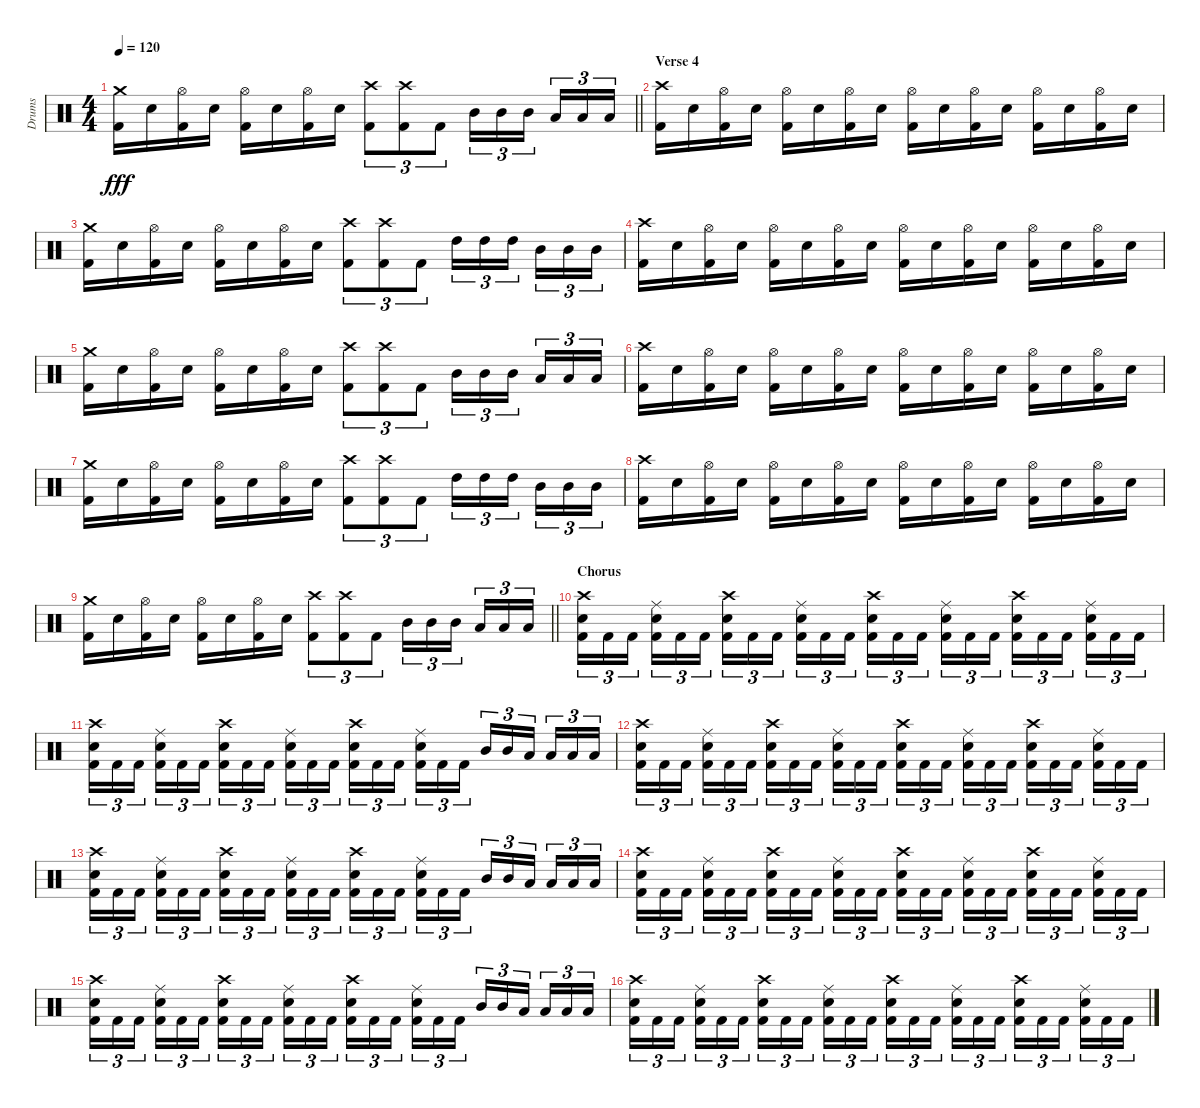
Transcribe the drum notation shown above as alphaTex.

\track ("Drums" "Drums") {instrument percussion}
\staff {score}
\articulation defaults
\ts (4 4)
\tempo 120
\clef neutral
\barLineRight lightlight
\ks c
("Crash medium (hit)" "Kick (hit) 2").16{dy fff} "Snare (hit) 2".16 ("Hi-Hat (open)" "Kick (hit) 2").16 "Snare (hit) 2".16 ("Hi-Hat (open)" "Kick (hit) 2").16 "Snare (hit) 2".16 ("Hi-Hat (open)" "Kick (hit) 2").16 "Snare (hit) 2".16 ("Crash high (hit)" "Kick (hit) 2").8{tu (3 2)} ("Crash high (hit)" "Kick (hit) 2").8{tu (3 2)} "Kick (hit) 2".8{tu (3 2)} "Mid Tom (hit)".16{tu (3 2)} "Mid Tom (hit)".16{tu (3 2)} "Mid Tom (hit)".16{tu (3 2) beam splitsecondary} "Low Tom (hit)".16{tu (3 2)} "Low Tom (hit)".16{tu (3 2)} "Low Tom (hit)".16{tu (3 2)} |
\section ("" "Verse 4")
("Crash high (hit)" "Kick (hit) 2").16 "Snare (hit) 2".16 ("Hi-Hat (open)" "Kick (hit) 2").16 "Snare (hit) 2".16 ("Hi-Hat (open)" "Kick (hit) 2").16 "Snare (hit) 2".16 ("Hi-Hat (open)" "Kick (hit) 2").16 "Snare (hit) 2".16 ("Hi-Hat (open)" "Kick (hit) 2").16 "Snare (hit) 2".16 ("Hi-Hat (open)" "Kick (hit) 2").16 "Snare (hit) 2".16 ("Hi-Hat (open)" "Kick (hit) 2").16 "Snare (hit) 2".16 ("Hi-Hat (open)" "Kick (hit) 2").16 "Snare (hit) 2".16 |
("Crash medium (hit)" "Kick (hit) 2").16 "Snare (hit) 2".16 ("Hi-Hat (open)" "Kick (hit) 2").16 "Snare (hit) 2".16 ("Hi-Hat (open)" "Kick (hit) 2").16 "Snare (hit) 2".16 ("Hi-Hat (open)" "Kick (hit) 2").16 "Snare (hit) 2".16 ("Crash high (hit)" "Kick (hit) 2").8{tu (3 2)} ("Crash high (hit)" "Kick (hit) 2").8{tu (3 2)} "Kick (hit) 2".8{tu (3 2)} "High Tom (hit)".16{tu (3 2)} "High Tom (hit)".16{tu (3 2)} "High Tom (hit)".16{tu (3 2) beam splitsecondary} "Mid Tom (hit)".16{tu (3 2)} "Mid Tom (hit)".16{tu (3 2)} "Mid Tom (hit)".16{tu (3 2)} |
("Crash high (hit)" "Kick (hit) 2").16 "Snare (hit) 2".16 ("Hi-Hat (open)" "Kick (hit) 2").16 "Snare (hit) 2".16 ("Hi-Hat (open)" "Kick (hit) 2").16 "Snare (hit) 2".16 ("Hi-Hat (open)" "Kick (hit) 2").16 "Snare (hit) 2".16 ("Hi-Hat (open)" "Kick (hit) 2").16 "Snare (hit) 2".16 ("Hi-Hat (open)" "Kick (hit) 2").16 "Snare (hit) 2".16 ("Hi-Hat (open)" "Kick (hit) 2").16 "Snare (hit) 2".16 ("Hi-Hat (open)" "Kick (hit) 2").16 "Snare (hit) 2".16 |
("Crash medium (hit)" "Kick (hit) 2").16 "Snare (hit) 2".16 ("Hi-Hat (open)" "Kick (hit) 2").16 "Snare (hit) 2".16 ("Hi-Hat (open)" "Kick (hit) 2").16 "Snare (hit) 2".16 ("Hi-Hat (open)" "Kick (hit) 2").16 "Snare (hit) 2".16 ("Crash high (hit)" "Kick (hit) 2").8{tu (3 2)} ("Crash high (hit)" "Kick (hit) 2").8{tu (3 2)} "Kick (hit) 2".8{tu (3 2)} "Mid Tom (hit)".16{tu (3 2)} "Mid Tom (hit)".16{tu (3 2)} "Mid Tom (hit)".16{tu (3 2) beam splitsecondary} "Low Tom (hit)".16{tu (3 2)} "Low Tom (hit)".16{tu (3 2)} "Low Tom (hit)".16{tu (3 2)} |
("Crash high (hit)" "Kick (hit) 2").16 "Snare (hit) 2".16 ("Hi-Hat (open)" "Kick (hit) 2").16 "Snare (hit) 2".16 ("Hi-Hat (open)" "Kick (hit) 2").16 "Snare (hit) 2".16 ("Hi-Hat (open)" "Kick (hit) 2").16 "Snare (hit) 2".16 ("Hi-Hat (open)" "Kick (hit) 2").16 "Snare (hit) 2".16 ("Hi-Hat (open)" "Kick (hit) 2").16 "Snare (hit) 2".16 ("Hi-Hat (open)" "Kick (hit) 2").16 "Snare (hit) 2".16 ("Hi-Hat (open)" "Kick (hit) 2").16 "Snare (hit) 2".16 |
("Crash medium (hit)" "Kick (hit) 2").16 "Snare (hit) 2".16 ("Hi-Hat (open)" "Kick (hit) 2").16 "Snare (hit) 2".16 ("Hi-Hat (open)" "Kick (hit) 2").16 "Snare (hit) 2".16 ("Hi-Hat (open)" "Kick (hit) 2").16 "Snare (hit) 2".16 ("Crash high (hit)" "Kick (hit) 2").8{tu (3 2)} ("Crash high (hit)" "Kick (hit) 2").8{tu (3 2)} "Kick (hit) 2".8{tu (3 2)} "High Tom (hit)".16{tu (3 2)} "High Tom (hit)".16{tu (3 2)} "High Tom (hit)".16{tu (3 2) beam splitsecondary} "Mid Tom (hit)".16{tu (3 2)} "Mid Tom (hit)".16{tu (3 2)} "Mid Tom (hit)".16{tu (3 2)} |
("Crash high (hit)" "Kick (hit) 2").16 "Snare (hit) 2".16 ("Hi-Hat (open)" "Kick (hit) 2").16 "Snare (hit) 2".16 ("Hi-Hat (open)" "Kick (hit) 2").16 "Snare (hit) 2".16 ("Hi-Hat (open)" "Kick (hit) 2").16 "Snare (hit) 2".16 ("Hi-Hat (open)" "Kick (hit) 2").16 "Snare (hit) 2".16 ("Hi-Hat (open)" "Kick (hit) 2").16 "Snare (hit) 2".16 ("Hi-Hat (open)" "Kick (hit) 2").16 "Snare (hit) 2".16 ("Hi-Hat (open)" "Kick (hit) 2").16 "Snare (hit) 2".16 |
\barLineRight lightlight
("Crash medium (hit)" "Kick (hit) 2").16 "Snare (hit) 2".16 ("Hi-Hat (open)" "Kick (hit) 2").16 "Snare (hit) 2".16 ("Hi-Hat (open)" "Kick (hit) 2").16 "Snare (hit) 2".16 ("Hi-Hat (open)" "Kick (hit) 2").16 "Snare (hit) 2".16 ("Crash high (hit)" "Kick (hit) 2").8{tu (3 2)} ("Crash high (hit)" "Kick (hit) 2").8{tu (3 2)} "Kick (hit) 2".8{tu (3 2)} "Mid Tom (hit)".16{tu (3 2)} "Mid Tom (hit)".16{tu (3 2)} "Mid Tom (hit)".16{tu (3 2) beam splitsecondary} "Low Tom (hit)".16{tu (3 2)} "Low Tom (hit)".16{tu (3 2)} "Low Tom (hit)".16{tu (3 2)} |
\section ("" "Chorus")
("Crash high (hit)" "Snare (hit) 2" "Kick (hit) 2").16{tu (3 2)} "Kick (hit) 2".16{tu (3 2)} "Kick (hit) 2".16{tu (3 2) beam splitsecondary} ("Ride (middle)" "Snare (hit) 2" "Kick (hit) 2").16{tu (3 2)} "Kick (hit) 2".16{tu (3 2)} "Kick (hit) 2".16{tu (3 2)} ("Crash high (hit)" "Snare (hit) 2" "Kick (hit) 2").16{tu (3 2)} "Kick (hit) 2".16{tu (3 2)} "Kick (hit) 2".16{tu (3 2) beam splitsecondary} ("Ride (middle)" "Snare (hit) 2" "Kick (hit) 2").16{tu (3 2)} "Kick (hit) 2".16{tu (3 2)} "Kick (hit) 2".16{tu (3 2)} ("Crash high (hit)" "Snare (hit) 2" "Kick (hit) 2").16{tu (3 2)} "Kick (hit) 2".16{tu (3 2)} "Kick (hit) 2".16{tu (3 2) beam splitsecondary} ("Ride (middle)" "Snare (hit) 2" "Kick (hit) 2").16{tu (3 2)} "Kick (hit) 2".16{tu (3 2)} "Kick (hit) 2".16{tu (3 2)} ("Crash high (hit)" "Snare (hit) 2" "Kick (hit) 2").16{tu (3 2)} "Kick (hit) 2".16{tu (3 2)} "Kick (hit) 2".16{tu (3 2) beam splitsecondary} ("Ride (middle)" "Snare (hit) 2" "Kick (hit) 2").16{tu (3 2)} "Kick (hit) 2".16{tu (3 2)} "Kick (hit) 2".16{tu (3 2)} |
("Crash high (hit)" "Snare (hit) 2" "Kick (hit) 2").16{tu (3 2)} "Kick (hit) 2".16{tu (3 2)} "Kick (hit) 2".16{tu (3 2) beam splitsecondary} ("Ride (middle)" "Snare (hit) 2" "Kick (hit) 2").16{tu (3 2)} "Kick (hit) 2".16{tu (3 2)} "Kick (hit) 2".16{tu (3 2)} ("Crash high (hit)" "Snare (hit) 2" "Kick (hit) 2").16{tu (3 2)} "Kick (hit) 2".16{tu (3 2)} "Kick (hit) 2".16{tu (3 2) beam splitsecondary} ("Ride (middle)" "Snare (hit) 2" "Kick (hit) 2").16{tu (3 2)} "Kick (hit) 2".16{tu (3 2)} "Kick (hit) 2".16{tu (3 2)} ("Crash high (hit)" "Snare (hit) 2" "Kick (hit) 2").16{tu (3 2)} "Kick (hit) 2".16{tu (3 2)} "Kick (hit) 2".16{tu (3 2) beam splitsecondary} ("Ride (middle)" "Snare (hit) 2" "Kick (hit) 2").16{tu (3 2)} "Kick (hit) 2".16{tu (3 2)} "Kick (hit) 2".16{tu (3 2)} "Mid Tom (hit)".16{tu (3 2)} "Mid Tom (hit)".16{tu (3 2)} "Low Tom (hit)".16{tu (3 2) beam splitsecondary} "Low Tom (hit)".16{tu (3 2)} "Low Tom (hit)".16{tu (3 2)} "Low Tom (hit)".16{tu (3 2)} |
("Crash high (hit)" "Snare (hit) 2" "Kick (hit) 2").16{tu (3 2)} "Kick (hit) 2".16{tu (3 2)} "Kick (hit) 2".16{tu (3 2) beam splitsecondary} ("Ride (middle)" "Snare (hit) 2" "Kick (hit) 2").16{tu (3 2)} "Kick (hit) 2".16{tu (3 2)} "Kick (hit) 2".16{tu (3 2)} ("Crash high (hit)" "Snare (hit) 2" "Kick (hit) 2").16{tu (3 2)} "Kick (hit) 2".16{tu (3 2)} "Kick (hit) 2".16{tu (3 2) beam splitsecondary} ("Ride (middle)" "Snare (hit) 2" "Kick (hit) 2").16{tu (3 2)} "Kick (hit) 2".16{tu (3 2)} "Kick (hit) 2".16{tu (3 2)} ("Crash high (hit)" "Snare (hit) 2" "Kick (hit) 2").16{tu (3 2)} "Kick (hit) 2".16{tu (3 2)} "Kick (hit) 2".16{tu (3 2) beam splitsecondary} ("Ride (middle)" "Snare (hit) 2" "Kick (hit) 2").16{tu (3 2)} "Kick (hit) 2".16{tu (3 2)} "Kick (hit) 2".16{tu (3 2)} ("Crash high (hit)" "Snare (hit) 2" "Kick (hit) 2").16{tu (3 2)} "Kick (hit) 2".16{tu (3 2)} "Kick (hit) 2".16{tu (3 2) beam splitsecondary} ("Ride (middle)" "Snare (hit) 2" "Kick (hit) 2").16{tu (3 2)} "Kick (hit) 2".16{tu (3 2)} "Kick (hit) 2".16{tu (3 2)} |
("Crash high (hit)" "Snare (hit) 2" "Kick (hit) 2").16{tu (3 2)} "Kick (hit) 2".16{tu (3 2)} "Kick (hit) 2".16{tu (3 2) beam splitsecondary} ("Ride (middle)" "Snare (hit) 2" "Kick (hit) 2").16{tu (3 2)} "Kick (hit) 2".16{tu (3 2)} "Kick (hit) 2".16{tu (3 2)} ("Crash high (hit)" "Snare (hit) 2" "Kick (hit) 2").16{tu (3 2)} "Kick (hit) 2".16{tu (3 2)} "Kick (hit) 2".16{tu (3 2) beam splitsecondary} ("Ride (middle)" "Snare (hit) 2" "Kick (hit) 2").16{tu (3 2)} "Kick (hit) 2".16{tu (3 2)} "Kick (hit) 2".16{tu (3 2)} ("Crash high (hit)" "Snare (hit) 2" "Kick (hit) 2").16{tu (3 2)} "Kick (hit) 2".16{tu (3 2)} "Kick (hit) 2".16{tu (3 2) beam splitsecondary} ("Ride (middle)" "Snare (hit) 2" "Kick (hit) 2").16{tu (3 2)} "Kick (hit) 2".16{tu (3 2)} "Kick (hit) 2".16{tu (3 2)} "Mid Tom (hit)".16{tu (3 2)} "Mid Tom (hit)".16{tu (3 2)} "Low Tom (hit)".16{tu (3 2) beam splitsecondary} "Low Tom (hit)".16{tu (3 2)} "Low Tom (hit)".16{tu (3 2)} "Low Tom (hit)".16{tu (3 2)} |
("Crash high (hit)" "Snare (hit) 2" "Kick (hit) 2").16{tu (3 2)} "Kick (hit) 2".16{tu (3 2)} "Kick (hit) 2".16{tu (3 2) beam splitsecondary} ("Ride (middle)" "Snare (hit) 2" "Kick (hit) 2").16{tu (3 2)} "Kick (hit) 2".16{tu (3 2)} "Kick (hit) 2".16{tu (3 2)} ("Crash high (hit)" "Snare (hit) 2" "Kick (hit) 2").16{tu (3 2)} "Kick (hit) 2".16{tu (3 2)} "Kick (hit) 2".16{tu (3 2) beam splitsecondary} ("Ride (middle)" "Snare (hit) 2" "Kick (hit) 2").16{tu (3 2)} "Kick (hit) 2".16{tu (3 2)} "Kick (hit) 2".16{tu (3 2)} ("Crash high (hit)" "Snare (hit) 2" "Kick (hit) 2").16{tu (3 2)} "Kick (hit) 2".16{tu (3 2)} "Kick (hit) 2".16{tu (3 2) beam splitsecondary} ("Ride (middle)" "Snare (hit) 2" "Kick (hit) 2").16{tu (3 2)} "Kick (hit) 2".16{tu (3 2)} "Kick (hit) 2".16{tu (3 2)} ("Crash high (hit)" "Snare (hit) 2" "Kick (hit) 2").16{tu (3 2)} "Kick (hit) 2".16{tu (3 2)} "Kick (hit) 2".16{tu (3 2) beam splitsecondary} ("Ride (middle)" "Snare (hit) 2" "Kick (hit) 2").16{tu (3 2)} "Kick (hit) 2".16{tu (3 2)} "Kick (hit) 2".16{tu (3 2)} |
("Crash high (hit)" "Snare (hit) 2" "Kick (hit) 2").16{tu (3 2)} "Kick (hit) 2".16{tu (3 2)} "Kick (hit) 2".16{tu (3 2) beam splitsecondary} ("Ride (middle)" "Snare (hit) 2" "Kick (hit) 2").16{tu (3 2)} "Kick (hit) 2".16{tu (3 2)} "Kick (hit) 2".16{tu (3 2)} ("Crash high (hit)" "Snare (hit) 2" "Kick (hit) 2").16{tu (3 2)} "Kick (hit) 2".16{tu (3 2)} "Kick (hit) 2".16{tu (3 2) beam splitsecondary} ("Ride (middle)" "Snare (hit) 2" "Kick (hit) 2").16{tu (3 2)} "Kick (hit) 2".16{tu (3 2)} "Kick (hit) 2".16{tu (3 2)} ("Crash high (hit)" "Snare (hit) 2" "Kick (hit) 2").16{tu (3 2)} "Kick (hit) 2".16{tu (3 2)} "Kick (hit) 2".16{tu (3 2) beam splitsecondary} ("Ride (middle)" "Snare (hit) 2" "Kick (hit) 2").16{tu (3 2)} "Kick (hit) 2".16{tu (3 2)} "Kick (hit) 2".16{tu (3 2)} "Mid Tom (hit)".16{tu (3 2)} "Mid Tom (hit)".16{tu (3 2)} "Low Tom (hit)".16{tu (3 2) beam splitsecondary} "Low Tom (hit)".16{tu (3 2)} "Low Tom (hit)".16{tu (3 2)} "Low Tom (hit)".16{tu (3 2)} |
("Crash high (hit)" "Snare (hit) 2" "Kick (hit) 2").16{tu (3 2)} "Kick (hit) 2".16{tu (3 2)} "Kick (hit) 2".16{tu (3 2) beam splitsecondary} ("Ride (middle)" "Snare (hit) 2" "Kick (hit) 2").16{tu (3 2)} "Kick (hit) 2".16{tu (3 2)} "Kick (hit) 2".16{tu (3 2)} ("Crash high (hit)" "Snare (hit) 2" "Kick (hit) 2").16{tu (3 2)} "Kick (hit) 2".16{tu (3 2)} "Kick (hit) 2".16{tu (3 2) beam splitsecondary} ("Ride (middle)" "Snare (hit) 2" "Kick (hit) 2").16{tu (3 2)} "Kick (hit) 2".16{tu (3 2)} "Kick (hit) 2".16{tu (3 2)} ("Crash high (hit)" "Snare (hit) 2" "Kick (hit) 2").16{tu (3 2)} "Kick (hit) 2".16{tu (3 2)} "Kick (hit) 2".16{tu (3 2) beam splitsecondary} ("Ride (middle)" "Snare (hit) 2" "Kick (hit) 2").16{tu (3 2)} "Kick (hit) 2".16{tu (3 2)} "Kick (hit) 2".16{tu (3 2)} ("Crash high (hit)" "Snare (hit) 2" "Kick (hit) 2").16{tu (3 2)} "Kick (hit) 2".16{tu (3 2)} "Kick (hit) 2".16{tu (3 2) beam splitsecondary} ("Ride (middle)" "Snare (hit) 2" "Kick (hit) 2").16{tu (3 2)} "Kick (hit) 2".16{tu (3 2)} "Kick (hit) 2".16{tu (3 2)}
